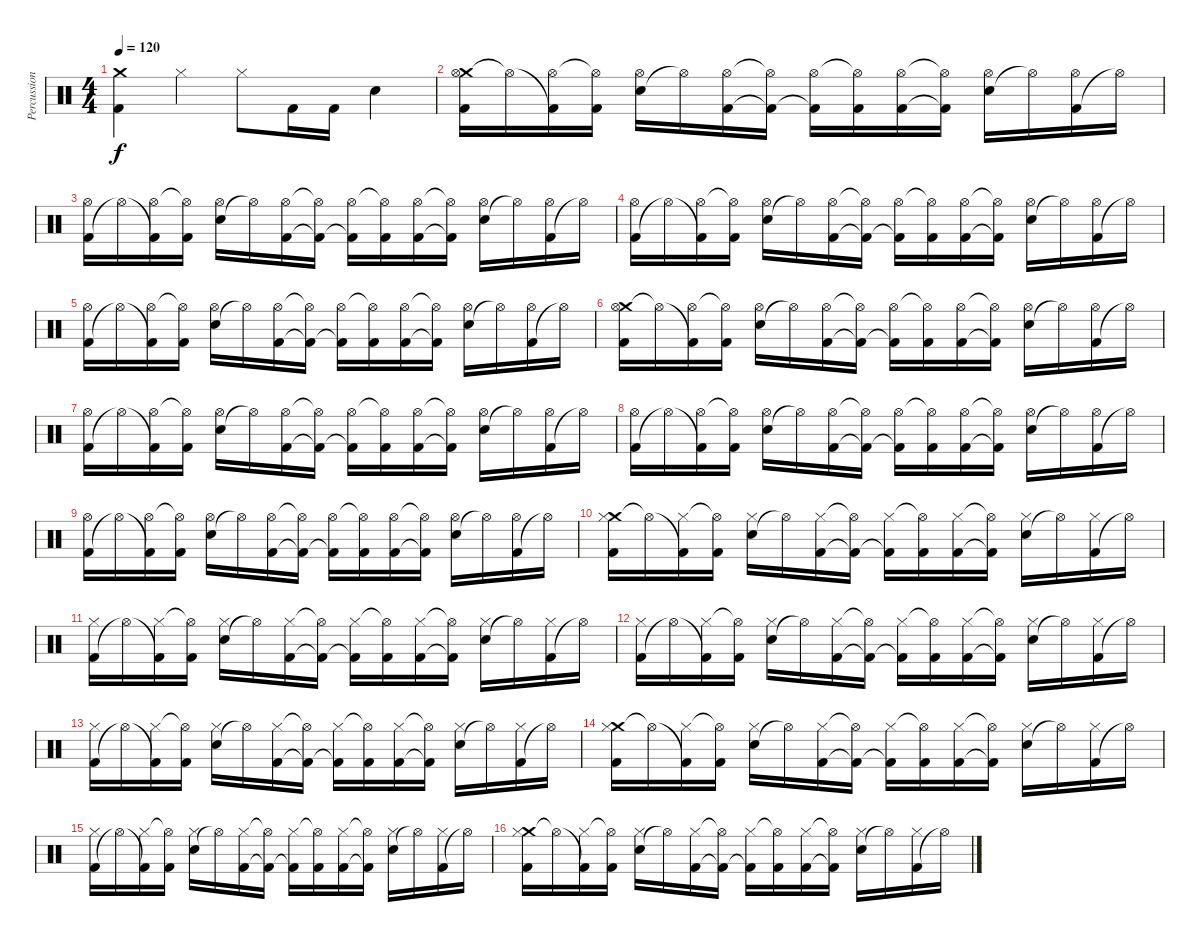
\track ("Percussions" "Percussion") {instrument percussion}
\staff {score}
\articulation defaults
\ts (4 4)
\tempo 120
\clef neutral
\ks c
("Crash medium (hit)" "Kick (hit) 2").4{dy f} "Hi-Hat (closed)".4 "Hi-Hat (closed)".8 "Kick (hit) 2".16 "Kick (hit) 2".16 "Electric Snare (hit)".4 |
("Crash medium (hit)" "Kick (hit) 2" "Hi-Hat (open)").16 "Hi-Hat (open)"{t}.16 ("Kick (hit) 2"{t} "Hi-Hat (open)").16 ("Kick (hit) 2" "Hi-Hat (open)"{t}).16 ("Electric Snare (hit)" "Hi-Hat (open)").16 "Hi-Hat (open)"{t}.16 ("Kick (hit) 2" "Hi-Hat (open)").16 ("Kick (hit) 2"{t} "Hi-Hat (open)"{t}).16 ("Kick (hit) 2"{t} "Hi-Hat (open)").16 ("Kick (hit) 2" "Hi-Hat (open)"{t}).16 ("Kick (hit) 2" "Hi-Hat (open)").16 ("Kick (hit) 2"{t} "Hi-Hat (open)"{t}).16 ("Electric Snare (hit)" "Hi-Hat (open)").16 "Hi-Hat (open)"{t}.16 ("Kick (hit) 2" "Hi-Hat (open)").16 "Hi-Hat (open)"{t}.16 |
("Kick (hit) 2" "Hi-Hat (open)").16 "Hi-Hat (open)"{t}.16 ("Kick (hit) 2"{t} "Hi-Hat (open)").16 ("Kick (hit) 2" "Hi-Hat (open)"{t}).16 ("Electric Snare (hit)" "Hi-Hat (open)").16 "Hi-Hat (open)"{t}.16 ("Kick (hit) 2" "Hi-Hat (open)").16 ("Kick (hit) 2"{t} "Hi-Hat (open)"{t}).16 ("Kick (hit) 2"{t} "Hi-Hat (open)").16 ("Kick (hit) 2" "Hi-Hat (open)"{t}).16 ("Kick (hit) 2" "Hi-Hat (open)").16 ("Kick (hit) 2"{t} "Hi-Hat (open)"{t}).16 ("Electric Snare (hit)" "Hi-Hat (open)").16 "Hi-Hat (open)"{t}.16 ("Kick (hit) 2" "Hi-Hat (open)").16 "Hi-Hat (open)"{t}.16 |
("Kick (hit) 2" "Hi-Hat (open)").16 "Hi-Hat (open)"{t}.16 ("Kick (hit) 2"{t} "Hi-Hat (open)").16 ("Kick (hit) 2" "Hi-Hat (open)"{t}).16 ("Electric Snare (hit)" "Hi-Hat (open)").16 "Hi-Hat (open)"{t}.16 ("Kick (hit) 2" "Hi-Hat (open)").16 ("Kick (hit) 2"{t} "Hi-Hat (open)"{t}).16 ("Kick (hit) 2"{t} "Hi-Hat (open)").16 ("Kick (hit) 2" "Hi-Hat (open)"{t}).16 ("Kick (hit) 2" "Hi-Hat (open)").16 ("Kick (hit) 2"{t} "Hi-Hat (open)"{t}).16 ("Electric Snare (hit)" "Hi-Hat (open)").16 "Hi-Hat (open)"{t}.16 ("Kick (hit) 2" "Hi-Hat (open)").16 "Hi-Hat (open)"{t}.16 |
("Kick (hit) 2" "Hi-Hat (open)").16 "Hi-Hat (open)"{t}.16 ("Kick (hit) 2"{t} "Hi-Hat (open)").16 ("Kick (hit) 2" "Hi-Hat (open)"{t}).16 ("Electric Snare (hit)" "Hi-Hat (open)").16 "Hi-Hat (open)"{t}.16 ("Kick (hit) 2" "Hi-Hat (open)").16 ("Kick (hit) 2"{t} "Hi-Hat (open)"{t}).16 ("Kick (hit) 2"{t} "Hi-Hat (open)").16 ("Kick (hit) 2" "Hi-Hat (open)"{t}).16 ("Kick (hit) 2" "Hi-Hat (open)").16 ("Kick (hit) 2"{t} "Hi-Hat (open)"{t}).16 ("Electric Snare (hit)" "Hi-Hat (open)").16 "Hi-Hat (open)"{t}.16 ("Kick (hit) 2" "Hi-Hat (open)").16 "Hi-Hat (open)"{t}.16 |
("Crash medium (hit)" "Kick (hit) 2" "Hi-Hat (open)").16 "Hi-Hat (open)"{t}.16 ("Kick (hit) 2"{t} "Hi-Hat (open)").16 ("Kick (hit) 2" "Hi-Hat (open)"{t}).16 ("Electric Snare (hit)" "Hi-Hat (open)").16 "Hi-Hat (open)"{t}.16 ("Kick (hit) 2" "Hi-Hat (open)").16 ("Kick (hit) 2"{t} "Hi-Hat (open)"{t}).16 ("Kick (hit) 2"{t} "Hi-Hat (open)").16 ("Kick (hit) 2" "Hi-Hat (open)"{t}).16 ("Kick (hit) 2" "Hi-Hat (open)").16 ("Kick (hit) 2"{t} "Hi-Hat (open)"{t}).16 ("Electric Snare (hit)" "Hi-Hat (open)").16 "Hi-Hat (open)"{t}.16 ("Kick (hit) 2" "Hi-Hat (open)").16 "Hi-Hat (open)"{t}.16 |
("Kick (hit) 2" "Hi-Hat (open)").16 "Hi-Hat (open)"{t}.16 ("Kick (hit) 2"{t} "Hi-Hat (open)").16 ("Kick (hit) 2" "Hi-Hat (open)"{t}).16 ("Electric Snare (hit)" "Hi-Hat (open)").16 "Hi-Hat (open)"{t}.16 ("Kick (hit) 2" "Hi-Hat (open)").16 ("Kick (hit) 2"{t} "Hi-Hat (open)"{t}).16 ("Kick (hit) 2"{t} "Hi-Hat (open)").16 ("Kick (hit) 2" "Hi-Hat (open)"{t}).16 ("Kick (hit) 2" "Hi-Hat (open)").16 ("Kick (hit) 2"{t} "Hi-Hat (open)"{t}).16 ("Electric Snare (hit)" "Hi-Hat (open)").16 "Hi-Hat (open)"{t}.16 ("Kick (hit) 2" "Hi-Hat (open)").16 "Hi-Hat (open)"{t}.16 |
("Kick (hit) 2" "Hi-Hat (open)").16 "Hi-Hat (open)"{t}.16 ("Kick (hit) 2"{t} "Hi-Hat (open)").16 ("Kick (hit) 2" "Hi-Hat (open)"{t}).16 ("Electric Snare (hit)" "Hi-Hat (open)").16 "Hi-Hat (open)"{t}.16 ("Kick (hit) 2" "Hi-Hat (open)").16 ("Kick (hit) 2"{t} "Hi-Hat (open)"{t}).16 ("Kick (hit) 2"{t} "Hi-Hat (open)").16 ("Kick (hit) 2" "Hi-Hat (open)"{t}).16 ("Kick (hit) 2" "Hi-Hat (open)").16 ("Kick (hit) 2"{t} "Hi-Hat (open)"{t}).16 ("Electric Snare (hit)" "Hi-Hat (open)").16 "Hi-Hat (open)"{t}.16 ("Kick (hit) 2" "Hi-Hat (open)").16 "Hi-Hat (open)"{t}.16 |
("Kick (hit) 2" "Hi-Hat (open)").16 "Hi-Hat (open)"{t}.16 ("Kick (hit) 2"{t} "Hi-Hat (open)").16 ("Kick (hit) 2" "Hi-Hat (open)"{t}).16 ("Electric Snare (hit)" "Hi-Hat (open)").16 "Hi-Hat (open)"{t}.16 ("Kick (hit) 2" "Hi-Hat (open)").16 ("Kick (hit) 2"{t} "Hi-Hat (open)"{t}).16 ("Kick (hit) 2"{t} "Hi-Hat (open)").16 ("Kick (hit) 2" "Hi-Hat (open)"{t}).16 ("Kick (hit) 2" "Hi-Hat (open)").16 ("Kick (hit) 2"{t} "Hi-Hat (open)"{t}).16 ("Electric Snare (hit)" "Hi-Hat (open)").16 "Hi-Hat (open)"{t}.16 ("Kick (hit) 2" "Hi-Hat (open)").16 "Hi-Hat (open)"{t}.16 |
("Crash medium (hit)" "Kick (hit) 2" "Hi-Hat (closed)").16 "Hi-Hat (open)"{t}.16 ("Kick (hit) 2"{t} "Hi-Hat (closed)").16 ("Kick (hit) 2" "Hi-Hat (open)"{t}).16 ("Electric Snare (hit)" "Hi-Hat (closed)").16 "Hi-Hat (open)"{t}.16 ("Kick (hit) 2" "Hi-Hat (closed)").16 ("Kick (hit) 2"{t} "Hi-Hat (open)"{t}).16 ("Kick (hit) 2"{t} "Hi-Hat (closed)").16 ("Kick (hit) 2" "Hi-Hat (open)"{t}).16 ("Kick (hit) 2" "Hi-Hat (closed)").16 ("Kick (hit) 2"{t} "Hi-Hat (open)"{t}).16 ("Electric Snare (hit)" "Hi-Hat (closed)").16 "Hi-Hat (open)"{t}.16 ("Kick (hit) 2" "Hi-Hat (closed)").16 "Hi-Hat (open)"{t}.16 |
("Kick (hit) 2" "Hi-Hat (closed)").16 "Hi-Hat (open)"{t}.16 ("Kick (hit) 2"{t} "Hi-Hat (closed)").16 ("Kick (hit) 2" "Hi-Hat (open)"{t}).16 ("Electric Snare (hit)" "Hi-Hat (closed)").16 "Hi-Hat (open)"{t}.16 ("Kick (hit) 2" "Hi-Hat (closed)").16 ("Kick (hit) 2"{t} "Hi-Hat (open)"{t}).16 ("Kick (hit) 2"{t} "Hi-Hat (closed)").16 ("Kick (hit) 2" "Hi-Hat (open)"{t}).16 ("Kick (hit) 2" "Hi-Hat (closed)").16 ("Kick (hit) 2"{t} "Hi-Hat (open)"{t}).16 ("Electric Snare (hit)" "Hi-Hat (closed)").16 "Hi-Hat (open)"{t}.16 ("Kick (hit) 2" "Hi-Hat (closed)").16 "Hi-Hat (open)"{t}.16 |
("Kick (hit) 2" "Hi-Hat (closed)").16 "Hi-Hat (open)"{t}.16 ("Kick (hit) 2"{t} "Hi-Hat (closed)").16 ("Kick (hit) 2" "Hi-Hat (open)"{t}).16 ("Electric Snare (hit)" "Hi-Hat (closed)").16 "Hi-Hat (open)"{t}.16 ("Kick (hit) 2" "Hi-Hat (closed)").16 ("Kick (hit) 2"{t} "Hi-Hat (open)"{t}).16 ("Kick (hit) 2"{t} "Hi-Hat (closed)").16 ("Kick (hit) 2" "Hi-Hat (open)"{t}).16 ("Kick (hit) 2" "Hi-Hat (closed)").16 ("Kick (hit) 2"{t} "Hi-Hat (open)"{t}).16 ("Electric Snare (hit)" "Hi-Hat (closed)").16 "Hi-Hat (open)"{t}.16 ("Kick (hit) 2" "Hi-Hat (closed)").16 "Hi-Hat (open)"{t}.16 |
("Kick (hit) 2" "Hi-Hat (closed)").16 "Hi-Hat (open)"{t}.16 ("Kick (hit) 2"{t} "Hi-Hat (closed)").16 ("Kick (hit) 2" "Hi-Hat (open)"{t}).16 ("Electric Snare (hit)" "Hi-Hat (closed)").16 "Hi-Hat (open)"{t}.16 ("Kick (hit) 2" "Hi-Hat (closed)").16 ("Kick (hit) 2"{t} "Hi-Hat (open)"{t}).16 ("Kick (hit) 2"{t} "Hi-Hat (closed)").16 ("Kick (hit) 2" "Hi-Hat (open)"{t}).16 ("Kick (hit) 2" "Hi-Hat (closed)").16 ("Kick (hit) 2"{t} "Hi-Hat (open)"{t}).16 ("Electric Snare (hit)" "Hi-Hat (closed)").16 "Hi-Hat (open)"{t}.16 ("Kick (hit) 2" "Hi-Hat (closed)").16 "Hi-Hat (open)"{t}.16 |
("Crash medium (hit)" "Kick (hit) 2" "Hi-Hat (closed)").16 "Hi-Hat (open)"{t}.16 ("Kick (hit) 2"{t} "Hi-Hat (closed)").16 ("Kick (hit) 2" "Hi-Hat (open)"{t}).16 ("Electric Snare (hit)" "Hi-Hat (closed)").16 "Hi-Hat (open)"{t}.16 ("Kick (hit) 2" "Hi-Hat (closed)").16 ("Kick (hit) 2"{t} "Hi-Hat (open)"{t}).16 ("Kick (hit) 2"{t} "Hi-Hat (closed)").16 ("Kick (hit) 2" "Hi-Hat (open)"{t}).16 ("Kick (hit) 2" "Hi-Hat (closed)").16 ("Kick (hit) 2"{t} "Hi-Hat (open)"{t}).16 ("Electric Snare (hit)" "Hi-Hat (closed)").16 "Hi-Hat (open)"{t}.16 ("Kick (hit) 2" "Hi-Hat (closed)").16 "Hi-Hat (open)"{t}.16 |
("Kick (hit) 2" "Hi-Hat (closed)").16 "Hi-Hat (open)"{t}.16 ("Kick (hit) 2"{t} "Hi-Hat (closed)").16 ("Kick (hit) 2" "Hi-Hat (open)"{t}).16 ("Electric Snare (hit)" "Hi-Hat (closed)").16 "Hi-Hat (open)"{t}.16 ("Kick (hit) 2" "Hi-Hat (closed)").16 ("Kick (hit) 2"{t} "Hi-Hat (open)"{t}).16 ("Kick (hit) 2"{t} "Hi-Hat (closed)").16 ("Kick (hit) 2" "Hi-Hat (open)"{t}).16 ("Kick (hit) 2" "Hi-Hat (closed)").16 ("Kick (hit) 2"{t} "Hi-Hat (open)"{t}).16 ("Electric Snare (hit)" "Hi-Hat (closed)").16 "Hi-Hat (open)"{t}.16 ("Kick (hit) 2" "Hi-Hat (closed)").16 "Hi-Hat (open)"{t}.16 |
("Crash medium (hit)" "Kick (hit) 2" "Hi-Hat (closed)").16 "Hi-Hat (open)"{t}.16 ("Kick (hit) 2"{t} "Hi-Hat (closed)").16 ("Kick (hit) 2" "Hi-Hat (open)"{t}).16 ("Electric Snare (hit)" "Hi-Hat (closed)").16 "Hi-Hat (open)"{t}.16 ("Kick (hit) 2" "Hi-Hat (closed)").16 ("Kick (hit) 2"{t} "Hi-Hat (open)"{t}).16 ("Kick (hit) 2"{t} "Hi-Hat (closed)").16 ("Kick (hit) 2" "Hi-Hat (open)"{t}).16 ("Kick (hit) 2" "Hi-Hat (closed)").16 ("Kick (hit) 2"{t} "Hi-Hat (open)"{t}).16 ("Electric Snare (hit)" "Hi-Hat (closed)").16 "Hi-Hat (open)"{t}.16 ("Kick (hit) 2" "Hi-Hat (closed)").16 "Hi-Hat (open)"{t}.16
